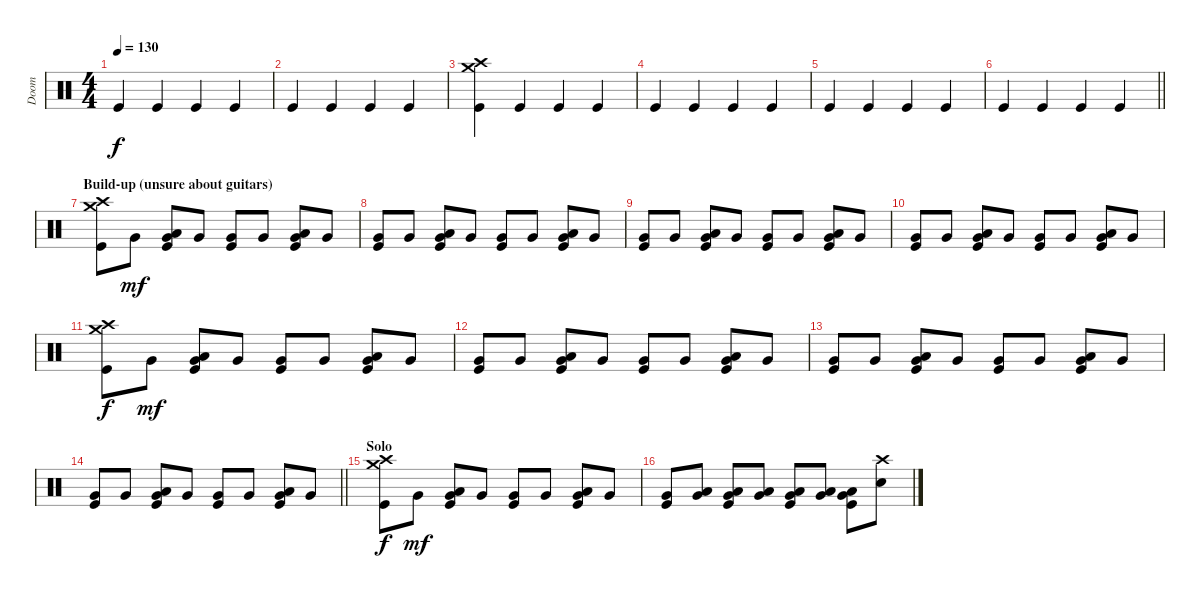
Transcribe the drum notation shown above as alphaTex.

\track ("Doom" "Doom") {instrument percussion}
\staff {score}
\articulation defaults
\ts (4 4)
\tempo 130
\clef neutral
\ks c "Kick (hit)".4{dy f} "Kick (hit)".4 "Kick (hit)".4 "Kick (hit)".4
|
"Kick (hit)".4 "Kick (hit)".4 "Kick (hit)".4 "Kick (hit)".4 |
("Crash high (hit)" "Crash medium (hit)" "Kick (hit)").4 "Kick (hit)".4 "Kick (hit)".4 "Kick (hit)".4 |
"Kick (hit)".4 "Kick (hit)".4 "Kick (hit)".4 "Kick (hit)".4 |
"Kick (hit)".4 "Kick (hit)".4 "Kick (hit)".4 "Kick (hit)".4 |
\barLineRight lightlight "Kick (hit)".4 "Kick (hit)".4 "Kick (hit)".4 "Kick (hit)".4
|
\section ("" "Build-up (unsure about guitars)")
("Crash high (hit)" "Crash medium (hit)" "Kick (hit)").8 "Very Low Tom (hit)".8{dy mf} ("Low Tom (hit)" "Very Low Tom (hit)" "Kick (hit)").8 "Very Low Tom (hit)".8 ("Very Low Tom (hit)" "Kick (hit)").8 "Very Low Tom (hit)".8 ("Low Tom (hit)" "Very Low Tom (hit)" "Kick (hit)").8 "Very Low Tom (hit)".8 |
("Very Low Tom (hit)" "Kick (hit)").8 "Very Low Tom (hit)".8 ("Low Tom (hit)" "Very Low Tom (hit)" "Kick (hit)").8 "Very Low Tom (hit)".8 ("Very Low Tom (hit)" "Kick (hit)").8 "Very Low Tom (hit)".8 ("Low Tom (hit)" "Very Low Tom (hit)" "Kick (hit)").8 "Very Low Tom (hit)".8 |
("Very Low Tom (hit)" "Kick (hit)").8 "Very Low Tom (hit)".8 ("Low Tom (hit)" "Very Low Tom (hit)" "Kick (hit)").8 "Very Low Tom (hit)".8 ("Very Low Tom (hit)" "Kick (hit)").8 "Very Low Tom (hit)".8 ("Low Tom (hit)" "Very Low Tom (hit)" "Kick (hit)").8 "Very Low Tom (hit)".8 |
("Very Low Tom (hit)" "Kick (hit)").8 "Very Low Tom (hit)".8 ("Low Tom (hit)" "Very Low Tom (hit)" "Kick (hit)").8 "Very Low Tom (hit)".8 ("Very Low Tom (hit)" "Kick (hit)").8 "Very Low Tom (hit)".8 ("Low Tom (hit)" "Very Low Tom (hit)" "Kick (hit)").8 "Very Low Tom (hit)".8 |
("Crash high (hit)" "Crash medium (hit)" "Kick (hit)").8{dy f} "Very Low Tom (hit)".8{dy mf} ("Low Tom (hit)" "Very Low Tom (hit)" "Kick (hit)").8 "Very Low Tom (hit)".8 ("Very Low Tom (hit)" "Kick (hit)").8 "Very Low Tom (hit)".8 ("Low Tom (hit)" "Very Low Tom (hit)" "Kick (hit)").8 "Very Low Tom (hit)".8 |
("Very Low Tom (hit)" "Kick (hit)").8 "Very Low Tom (hit)".8 ("Low Tom (hit)" "Very Low Tom (hit)" "Kick (hit)").8 "Very Low Tom (hit)".8 ("Very Low Tom (hit)" "Kick (hit)").8 "Very Low Tom (hit)".8 ("Low Tom (hit)" "Very Low Tom (hit)" "Kick (hit)").8 "Very Low Tom (hit)".8 |
("Very Low Tom (hit)" "Kick (hit)").8 "Very Low Tom (hit)".8 ("Low Tom (hit)" "Very Low Tom (hit)" "Kick (hit)").8 "Very Low Tom (hit)".8 ("Very Low Tom (hit)" "Kick (hit)").8 "Very Low Tom (hit)".8 ("Low Tom (hit)" "Very Low Tom (hit)" "Kick (hit)").8 "Very Low Tom (hit)".8 |
\barLineRight lightlight
("Very Low Tom (hit)" "Kick (hit)").8 "Very Low Tom (hit)".8 ("Low Tom (hit)" "Very Low Tom (hit)" "Kick (hit)").8 "Very Low Tom (hit)".8 ("Very Low Tom (hit)" "Kick (hit)").8 "Very Low Tom (hit)".8 ("Low Tom (hit)" "Very Low Tom (hit)" "Kick (hit)").8 "Very Low Tom (hit)".8 |
\section ("" "Solo")
("Crash high (hit)" "Crash medium (hit)" "Kick (hit)").8{dy f} "Very Low Tom (hit)".8{dy mf} ("Low Tom (hit)" "Very Low Tom (hit)" "Kick (hit)").8 "Very Low Tom (hit)".8 ("Very Low Tom (hit)" "Kick (hit)").8 "Very Low Tom (hit)".8 ("Low Tom (hit)" "Very Low Tom (hit)" "Kick (hit)").8 "Very Low Tom (hit)".8 |
("Very Low Tom (hit)" "Kick (hit)").8 ("Low Tom (hit)" "Very Low Tom (hit)").8 ("Low Tom (hit)" "Very Low Tom (hit)" "Kick (hit)").8 ("Low Tom (hit)" "Very Low Tom (hit)").8 ("Low Tom (hit)" "Very Low Tom (hit)" "Kick (hit)").8 ("Low Tom (hit)" "Very Low Tom (hit)").8 ("Low Tom (hit)" "Very Low Tom (hit)" "Kick (hit)").8 ("Crash high (hit)" "Electric Snare (hit)").8
